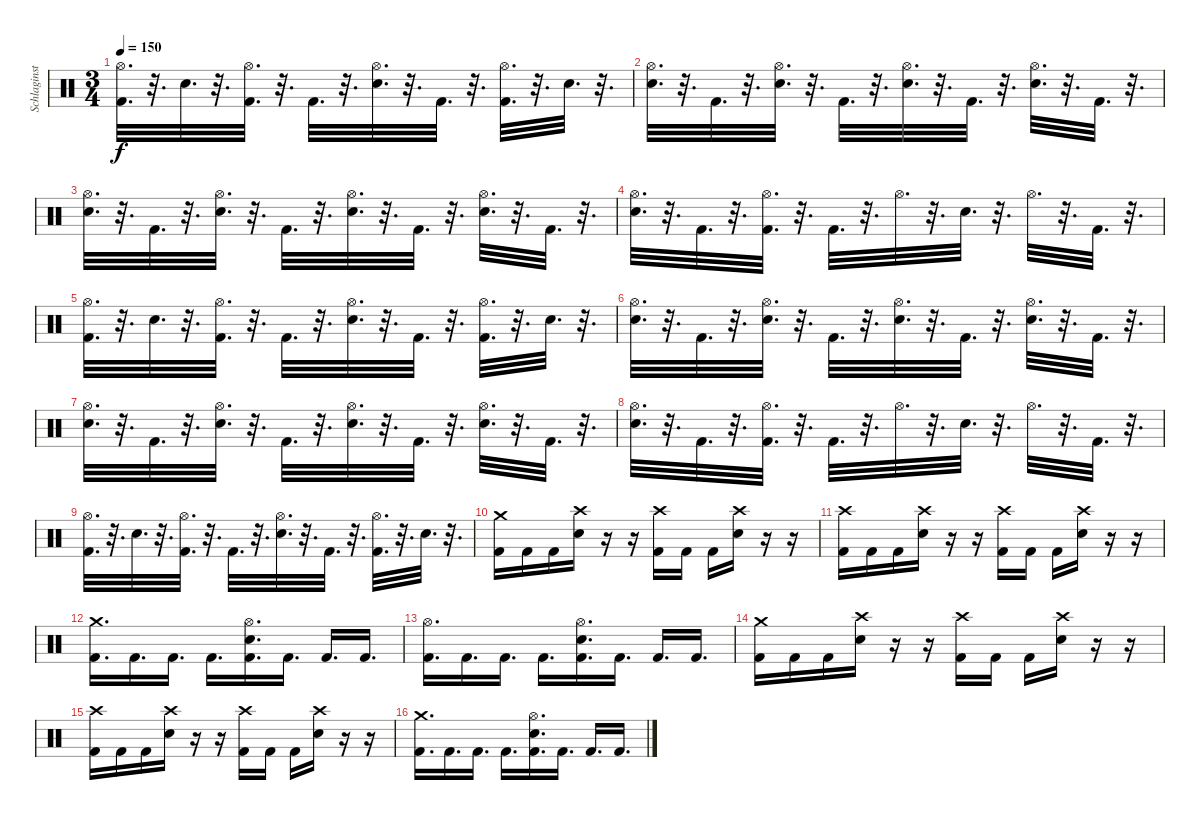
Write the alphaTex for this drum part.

\track ("Schlaginstrumente - Auswahl" "Schlaginst") {instrument percussion}
\staff {score}
\articulation defaults
\ts (3 4)
\tempo 150
\clef neutral
\ks c
("Hi-Hat (open)" "Kick (hit) 2").32{d dy f} r.32{d} "Snare (hit) 2".32{d} r.32{d} ("Hi-Hat (open)" "Kick (hit) 2").32{d} r.32{d} "Kick (hit) 2".32{d} r.32{d} ("Hi-Hat (open)" "Snare (hit) 2").32{d} r.32{d} "Kick (hit) 2".32{d} r.32{d} ("Hi-Hat (open)" "Kick (hit) 2").32{d} r.32{d} "Snare (hit) 2".32{d} r.32{d} |
("Hi-Hat (open)" "Snare (hit) 2").32{d} r.32{d} "Kick (hit) 2".32{d} r.32{d} ("Hi-Hat (open)" "Snare (hit) 2").32{d} r.32{d} "Kick (hit) 2".32{d} r.32{d} ("Hi-Hat (open)" "Snare (hit) 2").32{d} r.32{d} "Kick (hit) 2".32{d} r.32{d} ("Hi-Hat (open)" "Snare (hit) 2").32{d} r.32{d} "Kick (hit) 2".32{d} r.32{d} |
("Hi-Hat (open)" "Snare (hit) 2").32{d} r.32{d} "Kick (hit) 2".32{d} r.32{d} ("Hi-Hat (open)" "Snare (hit) 2").32{d} r.32{d} "Kick (hit) 2".32{d} r.32{d} ("Hi-Hat (open)" "Snare (hit) 2").32{d} r.32{d} "Kick (hit) 2".32{d} r.32{d} ("Hi-Hat (open)" "Snare (hit) 2").32{d} r.32{d} "Kick (hit) 2".32{d} r.32{d} |
("Hi-Hat (open)" "Snare (hit) 2").32{d} r.32{d} "Kick (hit) 2".32{d} r.32{d} ("Hi-Hat (open)" "Kick (hit) 2").32{d} r.32{d} "Kick (hit) 2".32{d} r.32{d} "Hi-Hat (open)".32{d} r.32{d} "Snare (hit) 2".32{d} r.32{d} "Hi-Hat (open)".32{d} r.32{d} "Kick (hit) 2".32{d} r.32{d} |
("Hi-Hat (open)" "Kick (hit) 2").32{d} r.32{d} "Snare (hit) 2".32{d} r.32{d} ("Hi-Hat (open)" "Kick (hit) 2").32{d} r.32{d} "Kick (hit) 2".32{d} r.32{d} ("Hi-Hat (open)" "Snare (hit) 2").32{d} r.32{d} "Kick (hit) 2".32{d} r.32{d} ("Hi-Hat (open)" "Kick (hit) 2").32{d} r.32{d} "Snare (hit) 2".32{d} r.32{d} |
("Hi-Hat (open)" "Snare (hit) 2").32{d} r.32{d} "Kick (hit) 2".32{d} r.32{d} ("Hi-Hat (open)" "Snare (hit) 2").32{d} r.32{d} "Kick (hit) 2".32{d} r.32{d} ("Hi-Hat (open)" "Snare (hit) 2").32{d} r.32{d} "Kick (hit) 2".32{d} r.32{d} ("Hi-Hat (open)" "Snare (hit) 2").32{d} r.32{d} "Kick (hit) 2".32{d} r.32{d} |
("Hi-Hat (open)" "Snare (hit) 2").32{d} r.32{d} "Kick (hit) 2".32{d} r.32{d} ("Hi-Hat (open)" "Snare (hit) 2").32{d} r.32{d} "Kick (hit) 2".32{d} r.32{d} ("Hi-Hat (open)" "Snare (hit) 2").32{d} r.32{d} "Kick (hit) 2".32{d} r.32{d} ("Hi-Hat (open)" "Snare (hit) 2").32{d} r.32{d} "Kick (hit) 2".32{d} r.32{d} |
("Hi-Hat (open)" "Snare (hit) 2").32{d} r.32{d} "Kick (hit) 2".32{d} r.32{d} ("Hi-Hat (open)" "Kick (hit) 2").32{d} r.32{d} "Kick (hit) 2".32{d} r.32{d} "Hi-Hat (open)".32{d} r.32{d} "Snare (hit) 2".32{d} r.32{d} "Hi-Hat (open)".32{d} r.32{d} "Kick (hit) 2".32{d} r.32{d} |
("Hi-Hat (open)" "Kick (hit) 2").32{d} r.32{d} "Snare (hit) 2".32{d} r.32{d} ("Hi-Hat (open)" "Kick (hit) 2").32{d} r.32{d} "Kick (hit) 2".32{d} r.32{d} ("Hi-Hat (open)" "Snare (hit) 2").32{d} r.32{d} "Kick (hit) 2".32{d} r.32{d} ("Hi-Hat (open)" "Kick (hit) 2").32{d} r.32{d} "Snare (hit) 2".32{d} r.32{d} |
("Crash medium (hit)" "Kick (hit) 2").16 "Kick (hit) 2".16 "Kick (hit) 2".16 ("Crash high (hit)" "Snare (hit) 2").16 r.16 r.16 ("Crash high (hit)" "Kick (hit) 2").16 "Kick (hit) 2".16 "Kick (hit) 2".16 ("Crash high (hit)" "Snare (hit) 2").16 r.16 r.16 |
("Crash high (hit)" "Kick (hit) 2").16 "Kick (hit) 2".16 "Kick (hit) 2".16 ("Crash high (hit)" "Snare (hit) 2").16 r.16 r.16 ("Crash high (hit)" "Kick (hit) 2").16 "Kick (hit) 2".16 "Kick (hit) 2".16 ("Crash high (hit)" "Snare (hit) 2").16 r.16 r.16 |
("Crash medium (hit)" "Kick (hit) 2").16{d} "Kick (hit) 2".16{d} "Kick (hit) 2".16{d} "Kick (hit) 2".16{d} ("Hi-Hat (open)" "Snare (hit) 2" "Kick (hit) 2").16{d} "Kick (hit) 2".16{d} "Kick (hit) 2".16{d} "Kick (hit) 2".16{d} |
("Hi-Hat (open)" "Kick (hit) 2").16{d} "Kick (hit) 2".16{d} "Kick (hit) 2".16{d} "Kick (hit) 2".16{d} ("Hi-Hat (open)" "Snare (hit) 2" "Kick (hit) 2").16{d} "Kick (hit) 2".16{d} "Kick (hit) 2".16{d} "Kick (hit) 2".16{d} |
("Crash medium (hit)" "Kick (hit) 2").16 "Kick (hit) 2".16 "Kick (hit) 2".16 ("Crash high (hit)" "Snare (hit) 2").16 r.16 r.16 ("Crash high (hit)" "Kick (hit) 2").16 "Kick (hit) 2".16 "Kick (hit) 2".16 ("Crash high (hit)" "Snare (hit) 2").16 r.16 r.16 |
("Crash high (hit)" "Kick (hit) 2").16 "Kick (hit) 2".16 "Kick (hit) 2".16 ("Crash high (hit)" "Snare (hit) 2").16 r.16 r.16 ("Crash high (hit)" "Kick (hit) 2").16 "Kick (hit) 2".16 "Kick (hit) 2".16 ("Crash high (hit)" "Snare (hit) 2").16 r.16 r.16 |
("Crash medium (hit)" "Kick (hit) 2").16{d} "Kick (hit) 2".16{d} "Kick (hit) 2".16{d} "Kick (hit) 2".16{d} ("Hi-Hat (open)" "Snare (hit) 2" "Kick (hit) 2").16{d} "Kick (hit) 2".16{d} "Kick (hit) 2".16{d} "Kick (hit) 2".16{d}
